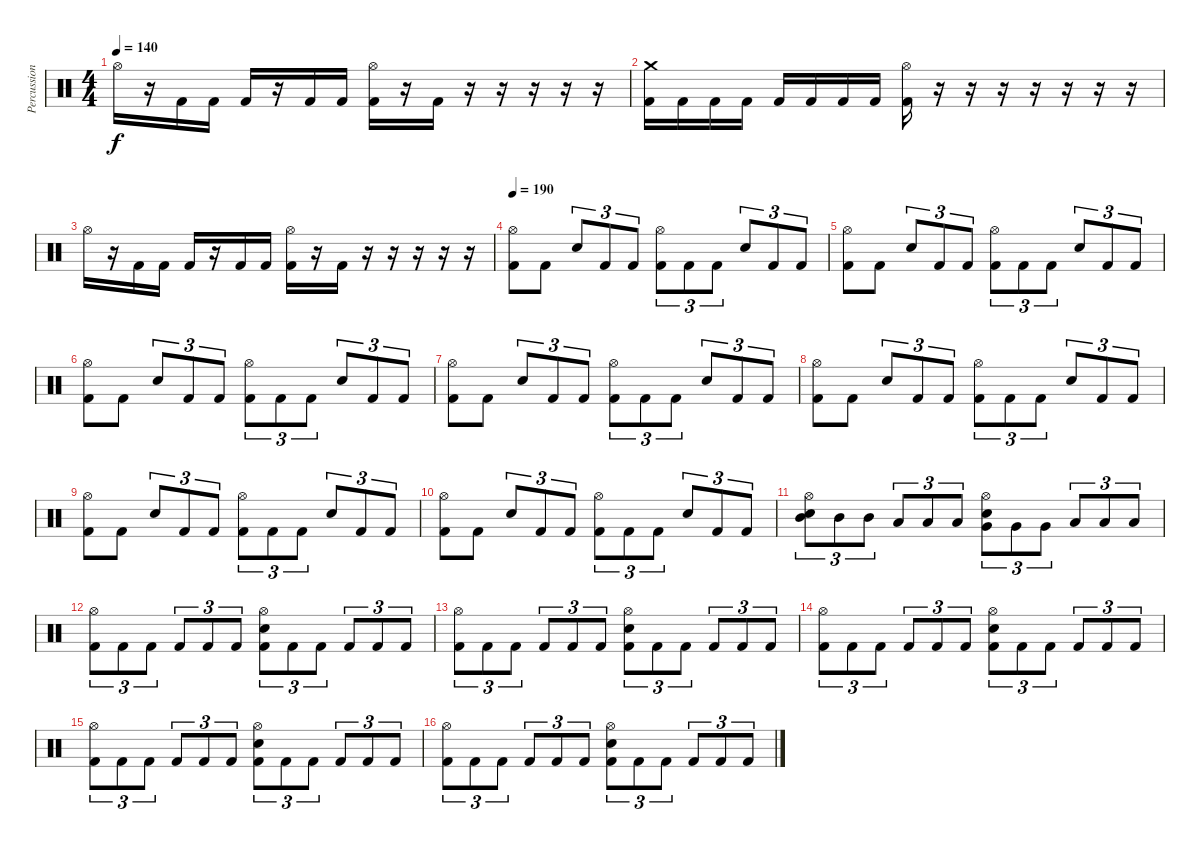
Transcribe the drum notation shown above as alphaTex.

\track ("Percussion" "Percussion") {instrument percussion}
\staff {score}
\articulation defaults
\ts (4 4)
\tempo 140
\clef neutral
\ks c "Hi-Hat (open)".16{dy f}
r.16 "Kick (hit) 2".16 "Kick (hit) 2".16 "Kick (hit) 2".16 r.16 "Kick (hit) 2".16 "Kick (hit) 2".16 ("Hi-Hat (open)" "Kick (hit) 2").16 r.16 "Kick (hit) 2".16 r.16 r.16 r.16 r.16 r.16 |
("Crash medium (hit)" "Kick (hit) 2").16 "Kick (hit) 2".16 "Kick (hit) 2".16 "Kick (hit) 2".16 "Kick (hit) 2".16 "Kick (hit) 2".16 "Kick (hit) 2".16 "Kick (hit) 2".16 ("Hi-Hat (open)" "Kick (hit) 2").16 r.16 r.16 r.16 r.16 r.16 r.16 r.16 |
"Hi-Hat (open)".16 r.16 "Kick (hit) 2".16 "Kick (hit) 2".16 "Kick (hit) 2".16 r.16 "Kick (hit) 2".16 "Kick (hit) 2".16 ("Hi-Hat (open)" "Kick (hit) 2").16 r.16 "Kick (hit) 2".16 r.16 r.16 r.16 r.16 r.16 |
\tempo 190
("Hi-Hat (open)" "Kick (hit) 2").8 "Kick (hit) 2".8 "Snare (hit) 2".8{tu (3 2)} "Kick (hit) 2".8{tu (3 2)} "Kick (hit) 2".8{tu (3 2)} ("Hi-Hat (open)" "Kick (hit) 2").8{tu (3 2)} "Kick (hit) 2".8{tu (3 2)} "Kick (hit) 2".8{tu (3 2)} "Snare (hit) 2".8{tu (3 2)} "Kick (hit) 2".8{tu (3 2)} "Kick (hit) 2".8{tu (3 2)} |
("Hi-Hat (open)" "Kick (hit) 2").8 "Kick (hit) 2".8 "Snare (hit) 2".8{tu (3 2)} "Kick (hit) 2".8{tu (3 2)} "Kick (hit) 2".8{tu (3 2)} ("Hi-Hat (open)" "Kick (hit) 2").8{tu (3 2)} "Kick (hit) 2".8{tu (3 2)} "Kick (hit) 2".8{tu (3 2)} "Snare (hit) 2".8{tu (3 2)} "Kick (hit) 2".8{tu (3 2)} "Kick (hit) 2".8{tu (3 2)} |
("Hi-Hat (open)" "Kick (hit) 2").8 "Kick (hit) 2".8 "Snare (hit) 2".8{tu (3 2)} "Kick (hit) 2".8{tu (3 2)} "Kick (hit) 2".8{tu (3 2)} ("Hi-Hat (open)" "Kick (hit) 2").8{tu (3 2)} "Kick (hit) 2".8{tu (3 2)} "Kick (hit) 2".8{tu (3 2)} "Snare (hit) 2".8{tu (3 2)} "Kick (hit) 2".8{tu (3 2)} "Kick (hit) 2".8{tu (3 2)} |
("Hi-Hat (open)" "Kick (hit) 2").8 "Kick (hit) 2".8 "Snare (hit) 2".8{tu (3 2)} "Kick (hit) 2".8{tu (3 2)} "Kick (hit) 2".8{tu (3 2)} ("Hi-Hat (open)" "Kick (hit) 2").8{tu (3 2)} "Kick (hit) 2".8{tu (3 2)} "Kick (hit) 2".8{tu (3 2)} "Snare (hit) 2".8{tu (3 2)} "Kick (hit) 2".8{tu (3 2)} "Kick (hit) 2".8{tu (3 2)} |
("Hi-Hat (open)" "Kick (hit) 2").8 "Kick (hit) 2".8 "Snare (hit) 2".8{tu (3 2)} "Kick (hit) 2".8{tu (3 2)} "Kick (hit) 2".8{tu (3 2)} ("Hi-Hat (open)" "Kick (hit) 2").8{tu (3 2)} "Kick (hit) 2".8{tu (3 2)} "Kick (hit) 2".8{tu (3 2)} "Snare (hit) 2".8{tu (3 2)} "Kick (hit) 2".8{tu (3 2)} "Kick (hit) 2".8{tu (3 2)} |
("Hi-Hat (open)" "Kick (hit) 2").8 "Kick (hit) 2".8 "Snare (hit) 2".8{tu (3 2)} "Kick (hit) 2".8{tu (3 2)} "Kick (hit) 2".8{tu (3 2)} ("Hi-Hat (open)" "Kick (hit) 2").8{tu (3 2)} "Kick (hit) 2".8{tu (3 2)} "Kick (hit) 2".8{tu (3 2)} "Snare (hit) 2".8{tu (3 2)} "Kick (hit) 2".8{tu (3 2)} "Kick (hit) 2".8{tu (3 2)} |
("Hi-Hat (open)" "Kick (hit) 2").8 "Kick (hit) 2".8 "Snare (hit) 2".8{tu (3 2)} "Kick (hit) 2".8{tu (3 2)} "Kick (hit) 2".8{tu (3 2)} ("Hi-Hat (open)" "Kick (hit) 2").8{tu (3 2)} "Kick (hit) 2".8{tu (3 2)} "Kick (hit) 2".8{tu (3 2)} "Snare (hit) 2".8{tu (3 2)} "Kick (hit) 2".8{tu (3 2)} "Kick (hit) 2".8{tu (3 2)} |
("Mid Tom (hit)" "Hi-Hat (open)" "Snare (hit) 2").8{tu (3 2)} "Mid Tom (hit)".8{tu (3 2)} "Mid Tom (hit)".8{tu (3 2)} "Low Tom (hit)".8{tu (3 2)} "Low Tom (hit)".8{tu (3 2)} "Low Tom (hit)".8{tu (3 2)} ("Very Low Tom (hit)" "Hi-Hat (open)" "Snare (hit) 2").8{tu (3 2)} "Very Low Tom (hit)".8{tu (3 2)} "Very Low Tom (hit)".8{tu (3 2)} "Low Floor Tom (hit)".8{tu (3 2)} "Low Floor Tom (hit)".8{tu (3 2)} "Low Floor Tom (hit)".8{tu (3 2)} |
("Hi-Hat (open)" "Kick (hit) 2").8{tu (3 2)} "Kick (hit) 2".8{tu (3 2)} "Kick (hit) 2".8{tu (3 2)} "Kick (hit) 2".8{tu (3 2)} "Kick (hit) 2".8{tu (3 2)} "Kick (hit) 2".8{tu (3 2)} ("Hi-Hat (open)" "Snare (hit) 2" "Kick (hit) 2").8{tu (3 2)} "Kick (hit) 2".8{tu (3 2)} "Kick (hit) 2".8{tu (3 2)} "Kick (hit) 2".8{tu (3 2)} "Kick (hit) 2".8{tu (3 2)} "Kick (hit) 2".8{tu (3 2)} |
("Hi-Hat (open)" "Kick (hit) 2").8{tu (3 2)} "Kick (hit) 2".8{tu (3 2)} "Kick (hit) 2".8{tu (3 2)} "Kick (hit) 2".8{tu (3 2)} "Kick (hit) 2".8{tu (3 2)} "Kick (hit) 2".8{tu (3 2)} ("Hi-Hat (open)" "Snare (hit) 2" "Kick (hit) 2").8{tu (3 2)} "Kick (hit) 2".8{tu (3 2)} "Kick (hit) 2".8{tu (3 2)} "Kick (hit) 2".8{tu (3 2)} "Kick (hit) 2".8{tu (3 2)} "Kick (hit) 2".8{tu (3 2)} |
("Hi-Hat (open)" "Kick (hit) 2").8{tu (3 2)} "Kick (hit) 2".8{tu (3 2)} "Kick (hit) 2".8{tu (3 2)} "Kick (hit) 2".8{tu (3 2)} "Kick (hit) 2".8{tu (3 2)} "Kick (hit) 2".8{tu (3 2)} ("Hi-Hat (open)" "Snare (hit) 2" "Kick (hit) 2").8{tu (3 2)} "Kick (hit) 2".8{tu (3 2)} "Kick (hit) 2".8{tu (3 2)} "Kick (hit) 2".8{tu (3 2)} "Kick (hit) 2".8{tu (3 2)} "Kick (hit) 2".8{tu (3 2)} |
("Hi-Hat (open)" "Kick (hit) 2").8{tu (3 2)} "Kick (hit) 2".8{tu (3 2)} "Kick (hit) 2".8{tu (3 2)} "Kick (hit) 2".8{tu (3 2)} "Kick (hit) 2".8{tu (3 2)} "Kick (hit) 2".8{tu (3 2)} ("Hi-Hat (open)" "Snare (hit) 2" "Kick (hit) 2").8{tu (3 2)} "Kick (hit) 2".8{tu (3 2)} "Kick (hit) 2".8{tu (3 2)} "Kick (hit) 2".8{tu (3 2)} "Kick (hit) 2".8{tu (3 2)} "Kick (hit) 2".8{tu (3 2)} |
("Hi-Hat (open)" "Kick (hit) 2").8{tu (3 2)} "Kick (hit) 2".8{tu (3 2)} "Kick (hit) 2".8{tu (3 2)} "Kick (hit) 2".8{tu (3 2)} "Kick (hit) 2".8{tu (3 2)} "Kick (hit) 2".8{tu (3 2)} ("Hi-Hat (open)" "Snare (hit) 2" "Kick (hit) 2").8{tu (3 2)} "Kick (hit) 2".8{tu (3 2)} "Kick (hit) 2".8{tu (3 2)} "Kick (hit) 2".8{tu (3 2)} "Kick (hit) 2".8{tu (3 2)} "Kick (hit) 2".8{tu (3 2)}
